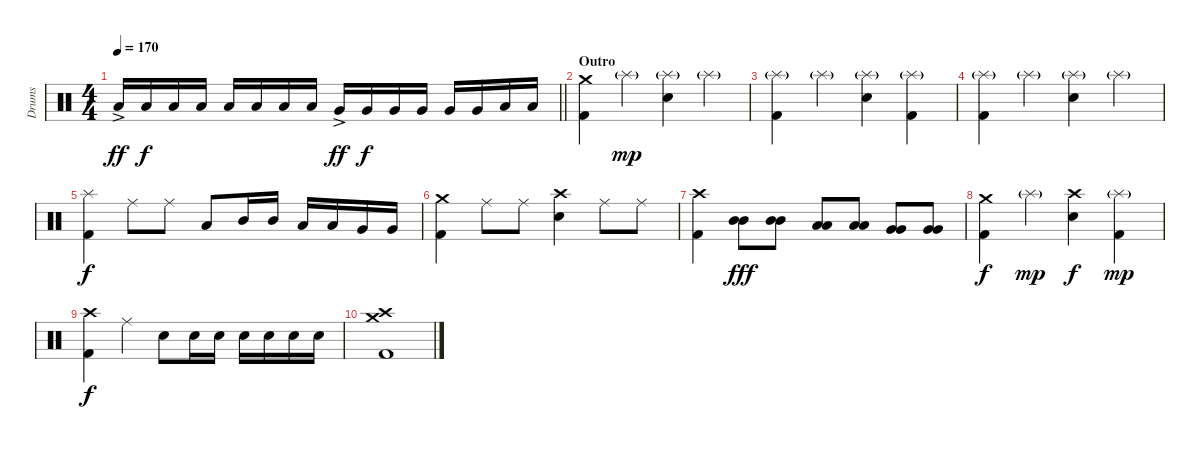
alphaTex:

\track ("Drums" "Drums") {instrument percussion}
\staff {score}
\articulation defaults
\ts (4 4)
\tempo 170
\clef neutral
\barLineRight lightlight
\ks c "Low Tom (hit)"{ac}.16{dy ff} "Low Tom (hit)".16{dy f} "Low Tom (hit)".16 "Low Tom (hit)".16 "Low Tom (hit)".16 "Low Tom (hit)".16 "Low Tom (hit)".16 "Low Tom (hit)".16 "Very Low Tom (hit)"{ac}.16{dy ff} "Very Low Tom (hit)".16{dy f} "Very Low Tom (hit)".16 "Very Low Tom (hit)".16 "Very Low Tom (hit)".16 "Very Low Tom (hit)".16 "Low Floor Tom (hit)".16 "Low Floor Tom (hit)".16
|
\section ("" "Outro")
("Crash medium (hit)" "Kick (hit) 2").4 "Splash (hit)"{g}.4{dy mp} ("Splash (hit)"{g} "Snare (hit) 2").4 "Splash (hit)"{g}.4 |
("Splash (hit)"{g} "Kick (hit) 2").4 "Splash (hit)"{g}.4 ("Splash (hit)"{g} "Snare (hit) 2").4 ("Splash (hit)"{g} "Kick (hit) 2").4 |
("Splash (hit)"{g} "Kick (hit) 2").4 "Splash (hit)"{g}.4 ("Splash (hit)"{g} "Snare (hit) 2").4 "Splash (hit)"{g}.4 |
("Splash (hit)" "Kick (hit) 2").4{dy f} "Ride (middle)".8 "Ride (middle)".8 "Low Tom (hit)".8 "Mid Tom (hit)".16 "Mid Tom (hit)".16 "Low Tom (hit)".16 "Low Tom (hit)".16 "Very Low Tom (hit)".16 "Very Low Tom (hit)".16 |
("Crash medium (hit)" "Kick (hit) 2").4 "Ride (middle)".8 "Ride (middle)".8 ("Crash high (hit)" "Snare (hit) 2").4 "Ride (middle)".8 "Ride (middle)".8 |
("Crash high (hit)" "Kick (hit) 2").4 ("Mid Tom (hit)" "Mid Tom (hit)").8{dy fff} ("Mid Tom (hit)" "Mid Tom (hit)").8 ("Low Tom (hit)" "Low Tom (hit)").8 ("Low Floor Tom (hit)" "Low Floor Tom (hit)").8 ("Very Low Tom (hit)" "Very Low Tom (hit)").8 ("Very Low Tom (hit)" "Very Low Tom (hit)").8 |
("Crash medium (hit)" "Kick (hit) 2").4{dy f} "Splash (hit)"{g}.4{dy mp} ("Crash high (hit)" "Snare (hit) 2").4{dy f} ("Splash (hit)"{g} "Kick (hit) 2").4{dy mp} |
("Crash high (hit)" "Kick (hit) 2").4{dy f} "Ride (middle)".4 "Snare (hit) 2".8 "Snare (hit) 2".16 "Snare (hit) 2".16 "Snare (hit) 2".16 "Snare (hit) 2".16 "Snare (hit) 2".16 "Snare (hit) 2".16 |
("Crash medium (hit)" "Crash high (hit)" "Kick (hit) 2").1
